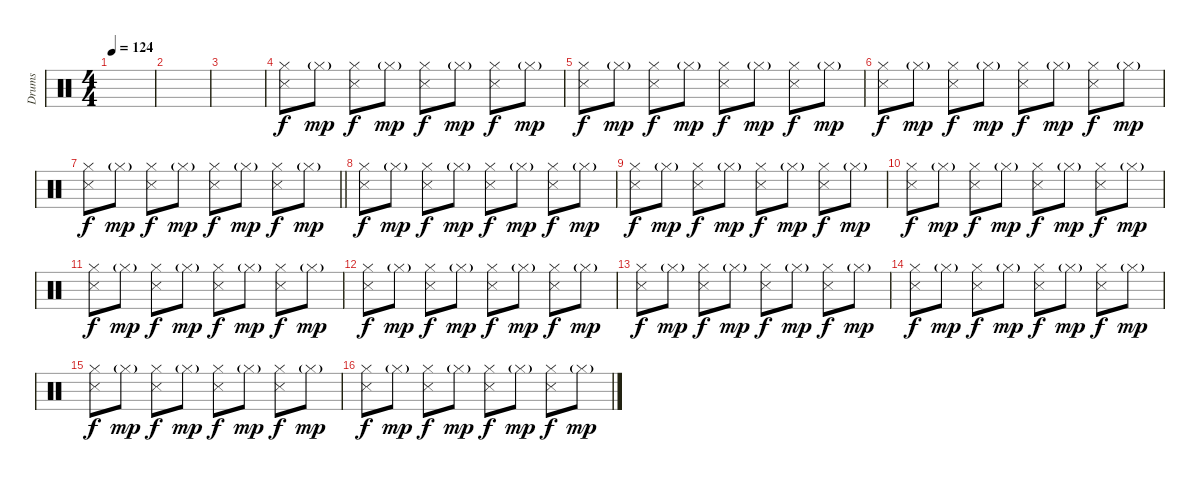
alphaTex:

\track ("Drums" "Drums") {instrument percussion}
\staff {score}
\articulation defaults
\ts (4 4)
\tempo 124
\clef neutral
\ks c
|
|
|
("Hi-Hat (closed)" "Snare (side stick) 3").8{dy f} "Hi-Hat (closed)"{g}.8{dy mp} ("Hi-Hat (closed)" "Snare (side stick) 3").8{dy f} "Hi-Hat (closed)"{g}.8{dy mp} ("Hi-Hat (closed)" "Snare (side stick) 3").8{dy f} "Hi-Hat (closed)"{g}.8{dy mp} ("Hi-Hat (closed)" "Snare (side stick) 3").8{dy f} "Hi-Hat (closed)"{g}.8{dy mp} |
("Hi-Hat (closed)" "Snare (side stick) 3").8{dy f} "Hi-Hat (closed)"{g}.8{dy mp} ("Hi-Hat (closed)" "Snare (side stick) 3").8{dy f} "Hi-Hat (closed)"{g}.8{dy mp} ("Hi-Hat (closed)" "Snare (side stick) 3").8{dy f} "Hi-Hat (closed)"{g}.8{dy mp} ("Hi-Hat (closed)" "Snare (side stick) 3").8{dy f} "Hi-Hat (closed)"{g}.8{dy mp} |
("Hi-Hat (closed)" "Snare (side stick) 3").8{dy f} "Hi-Hat (closed)"{g}.8{dy mp} ("Hi-Hat (closed)" "Snare (side stick) 3").8{dy f} "Hi-Hat (closed)"{g}.8{dy mp} ("Hi-Hat (closed)" "Snare (side stick) 3").8{dy f} "Hi-Hat (closed)"{g}.8{dy mp} ("Hi-Hat (closed)" "Snare (side stick) 3").8{dy f} "Hi-Hat (closed)"{g}.8{dy mp} |
\barLineRight lightlight
("Hi-Hat (closed)" "Snare (side stick) 3").8{dy f} "Hi-Hat (closed)"{g}.8{dy mp} ("Hi-Hat (closed)" "Snare (side stick) 3").8{dy f} "Hi-Hat (closed)"{g}.8{dy mp} ("Hi-Hat (closed)" "Snare (side stick) 3").8{dy f} "Hi-Hat (closed)"{g}.8{dy mp} ("Hi-Hat (closed)" "Snare (side stick) 3").8{dy f} "Hi-Hat (closed)"{g}.8{dy mp} |
("Hi-Hat (closed)" "Snare (side stick) 3").8{dy f} "Hi-Hat (closed)"{g}.8{dy mp} ("Hi-Hat (closed)" "Snare (side stick) 3").8{dy f} "Hi-Hat (closed)"{g}.8{dy mp} ("Hi-Hat (closed)" "Snare (side stick) 3").8{dy f} "Hi-Hat (closed)"{g}.8{dy mp} ("Hi-Hat (closed)" "Snare (side stick) 3").8{dy f} "Hi-Hat (closed)"{g}.8{dy mp} |
("Hi-Hat (closed)" "Snare (side stick) 3").8{dy f} "Hi-Hat (closed)"{g}.8{dy mp} ("Hi-Hat (closed)" "Snare (side stick) 3").8{dy f} "Hi-Hat (closed)"{g}.8{dy mp} ("Hi-Hat (closed)" "Snare (side stick) 3").8{dy f} "Hi-Hat (closed)"{g}.8{dy mp} ("Hi-Hat (closed)" "Snare (side stick) 3").8{dy f} "Hi-Hat (closed)"{g}.8{dy mp} |
("Hi-Hat (closed)" "Snare (side stick) 3").8{dy f} "Hi-Hat (closed)"{g}.8{dy mp} ("Hi-Hat (closed)" "Snare (side stick) 3").8{dy f} "Hi-Hat (closed)"{g}.8{dy mp} ("Hi-Hat (closed)" "Snare (side stick) 3").8{dy f} "Hi-Hat (closed)"{g}.8{dy mp} ("Hi-Hat (closed)" "Snare (side stick) 3").8{dy f} "Hi-Hat (closed)"{g}.8{dy mp} |
("Hi-Hat (closed)" "Snare (side stick) 3").8{dy f} "Hi-Hat (closed)"{g}.8{dy mp} ("Hi-Hat (closed)" "Snare (side stick) 3").8{dy f} "Hi-Hat (closed)"{g}.8{dy mp} ("Hi-Hat (closed)" "Snare (side stick) 3").8{dy f} "Hi-Hat (closed)"{g}.8{dy mp} ("Hi-Hat (closed)" "Snare (side stick) 3").8{dy f} "Hi-Hat (closed)"{g}.8{dy mp} |
("Hi-Hat (closed)" "Snare (side stick) 3").8{dy f} "Hi-Hat (closed)"{g}.8{dy mp} ("Hi-Hat (closed)" "Snare (side stick) 3").8{dy f} "Hi-Hat (closed)"{g}.8{dy mp} ("Hi-Hat (closed)" "Snare (side stick) 3").8{dy f} "Hi-Hat (closed)"{g}.8{dy mp} ("Hi-Hat (closed)" "Snare (side stick) 3").8{dy f} "Hi-Hat (closed)"{g}.8{dy mp} |
("Hi-Hat (closed)" "Snare (side stick) 3").8{dy f} "Hi-Hat (closed)"{g}.8{dy mp} ("Hi-Hat (closed)" "Snare (side stick) 3").8{dy f} "Hi-Hat (closed)"{g}.8{dy mp} ("Hi-Hat (closed)" "Snare (side stick) 3").8{dy f} "Hi-Hat (closed)"{g}.8{dy mp} ("Hi-Hat (closed)" "Snare (side stick) 3").8{dy f} "Hi-Hat (closed)"{g}.8{dy mp} |
("Hi-Hat (closed)" "Snare (side stick) 3").8{dy f} "Hi-Hat (closed)"{g}.8{dy mp} ("Hi-Hat (closed)" "Snare (side stick) 3").8{dy f} "Hi-Hat (closed)"{g}.8{dy mp} ("Hi-Hat (closed)" "Snare (side stick) 3").8{dy f} "Hi-Hat (closed)"{g}.8{dy mp} ("Hi-Hat (closed)" "Snare (side stick) 3").8{dy f} "Hi-Hat (closed)"{g}.8{dy mp} |
("Hi-Hat (closed)" "Snare (side stick) 3").8{dy f} "Hi-Hat (closed)"{g}.8{dy mp} ("Hi-Hat (closed)" "Snare (side stick) 3").8{dy f} "Hi-Hat (closed)"{g}.8{dy mp} ("Hi-Hat (closed)" "Snare (side stick) 3").8{dy f} "Hi-Hat (closed)"{g}.8{dy mp} ("Hi-Hat (closed)" "Snare (side stick) 3").8{dy f} "Hi-Hat (closed)"{g}.8{dy mp} |
("Hi-Hat (closed)" "Snare (side stick) 3").8{dy f} "Hi-Hat (closed)"{g}.8{dy mp} ("Hi-Hat (closed)" "Snare (side stick) 3").8{dy f} "Hi-Hat (closed)"{g}.8{dy mp} ("Hi-Hat (closed)" "Snare (side stick) 3").8{dy f} "Hi-Hat (closed)"{g}.8{dy mp} ("Hi-Hat (closed)" "Snare (side stick) 3").8{dy f} "Hi-Hat (closed)"{g}.8{dy mp}
